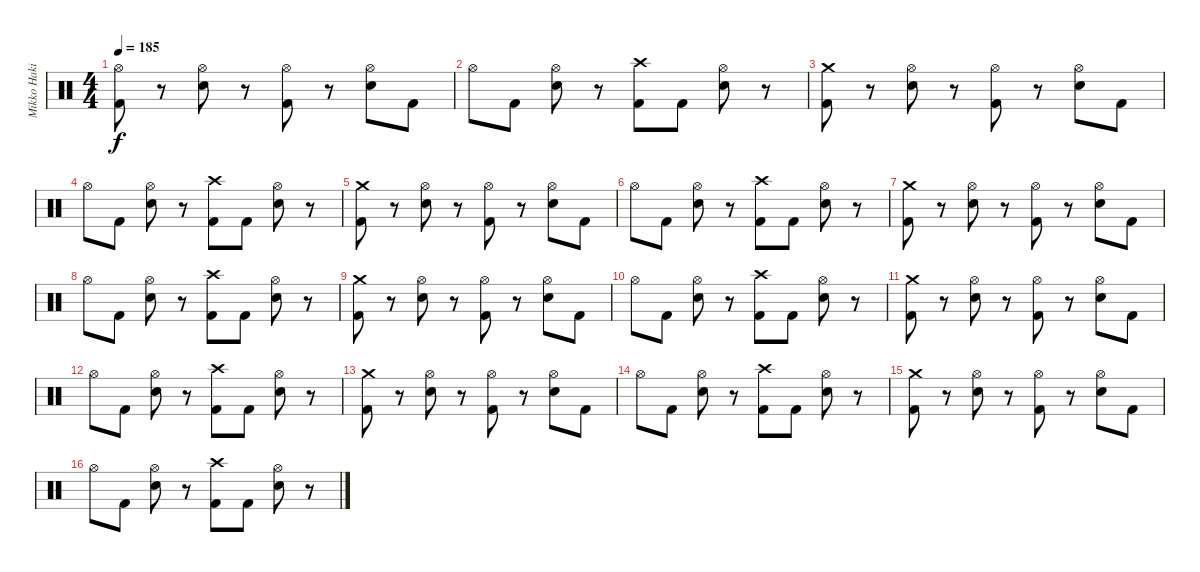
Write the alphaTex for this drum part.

\track ("Mikko Hakila" "Mikko Haki") {instrument percussion}
\staff {score}
\articulation defaults
\ts (4 4)
\tempo 185
\clef neutral
\ks c
("Hi-Hat (open)" "Kick (hit) 2").8{dy f} r.8 ("Hi-Hat (open)" "Snare (hit) 2").8 r.8 ("Hi-Hat (open)" "Kick (hit) 2").8 r.8 ("Hi-Hat (open)" "Snare (hit) 2").8 "Kick (hit) 2".8 |
"Hi-Hat (open)".8 "Kick (hit) 2".8 ("Hi-Hat (open)" "Snare (hit) 2").8 r.8 ("Crash high (hit)" "Kick (hit) 2").8 "Kick (hit) 2".8 ("Hi-Hat (open)" "Snare (hit) 2").8 r.8 |
("Crash medium (hit)" "Kick (hit) 2").8 r.8 ("Hi-Hat (open)" "Snare (hit) 2").8 r.8 ("Hi-Hat (open)" "Kick (hit) 2").8 r.8 ("Hi-Hat (open)" "Snare (hit) 2").8 "Kick (hit) 2".8 |
"Hi-Hat (open)".8 "Kick (hit) 2".8 ("Hi-Hat (open)" "Snare (hit) 2").8 r.8 ("Crash high (hit)" "Kick (hit) 2").8 "Kick (hit) 2".8 ("Hi-Hat (open)" "Snare (hit) 2").8 r.8 |
("Crash medium (hit)" "Kick (hit) 2").8 r.8 ("Hi-Hat (open)" "Snare (hit) 2").8 r.8 ("Hi-Hat (open)" "Kick (hit) 2").8 r.8 ("Hi-Hat (open)" "Snare (hit) 2").8 "Kick (hit) 2".8 |
"Hi-Hat (open)".8 "Kick (hit) 2".8 ("Hi-Hat (open)" "Snare (hit) 2").8 r.8 ("Crash high (hit)" "Kick (hit) 2").8 "Kick (hit) 2".8 ("Hi-Hat (open)" "Snare (hit) 2").8 r.8 |
("Crash medium (hit)" "Kick (hit) 2").8 r.8 ("Hi-Hat (open)" "Snare (hit) 2").8 r.8 ("Hi-Hat (open)" "Kick (hit) 2").8 r.8 ("Hi-Hat (open)" "Snare (hit) 2").8 "Kick (hit) 2".8 |
"Hi-Hat (open)".8 "Kick (hit) 2".8 ("Hi-Hat (open)" "Snare (hit) 2").8 r.8 ("Crash high (hit)" "Kick (hit) 2").8 "Kick (hit) 2".8 ("Hi-Hat (open)" "Snare (hit) 2").8 r.8 |
("Crash medium (hit)" "Kick (hit) 2").8 r.8 ("Hi-Hat (open)" "Snare (hit) 2").8 r.8 ("Hi-Hat (open)" "Kick (hit) 2").8 r.8 ("Hi-Hat (open)" "Snare (hit) 2").8 "Kick (hit) 2".8 |
"Hi-Hat (open)".8 "Kick (hit) 2".8 ("Hi-Hat (open)" "Snare (hit) 2").8 r.8 ("Crash high (hit)" "Kick (hit) 2").8 "Kick (hit) 2".8 ("Hi-Hat (open)" "Snare (hit) 2").8 r.8 |
("Crash medium (hit)" "Kick (hit) 2").8 r.8 ("Hi-Hat (open)" "Snare (hit) 2").8 r.8 ("Hi-Hat (open)" "Kick (hit) 2").8 r.8 ("Hi-Hat (open)" "Snare (hit) 2").8 "Kick (hit) 2".8 |
"Hi-Hat (open)".8 "Kick (hit) 2".8 ("Hi-Hat (open)" "Snare (hit) 2").8 r.8 ("Crash high (hit)" "Kick (hit) 2").8 "Kick (hit) 2".8 ("Hi-Hat (open)" "Snare (hit) 2").8 r.8 |
("Crash medium (hit)" "Kick (hit) 2").8 r.8 ("Hi-Hat (open)" "Snare (hit) 2").8 r.8 ("Hi-Hat (open)" "Kick (hit) 2").8 r.8 ("Hi-Hat (open)" "Snare (hit) 2").8 "Kick (hit) 2".8 |
"Hi-Hat (open)".8 "Kick (hit) 2".8 ("Hi-Hat (open)" "Snare (hit) 2").8 r.8 ("Crash high (hit)" "Kick (hit) 2").8 "Kick (hit) 2".8 ("Hi-Hat (open)" "Snare (hit) 2").8 r.8 |
("Crash medium (hit)" "Kick (hit) 2").8 r.8 ("Hi-Hat (open)" "Snare (hit) 2").8 r.8 ("Hi-Hat (open)" "Kick (hit) 2").8 r.8 ("Hi-Hat (open)" "Snare (hit) 2").8 "Kick (hit) 2".8 |
"Hi-Hat (open)".8 "Kick (hit) 2".8 ("Hi-Hat (open)" "Snare (hit) 2").8 r.8 ("Crash high (hit)" "Kick (hit) 2").8 "Kick (hit) 2".8 ("Hi-Hat (open)" "Snare (hit) 2").8 r.8
